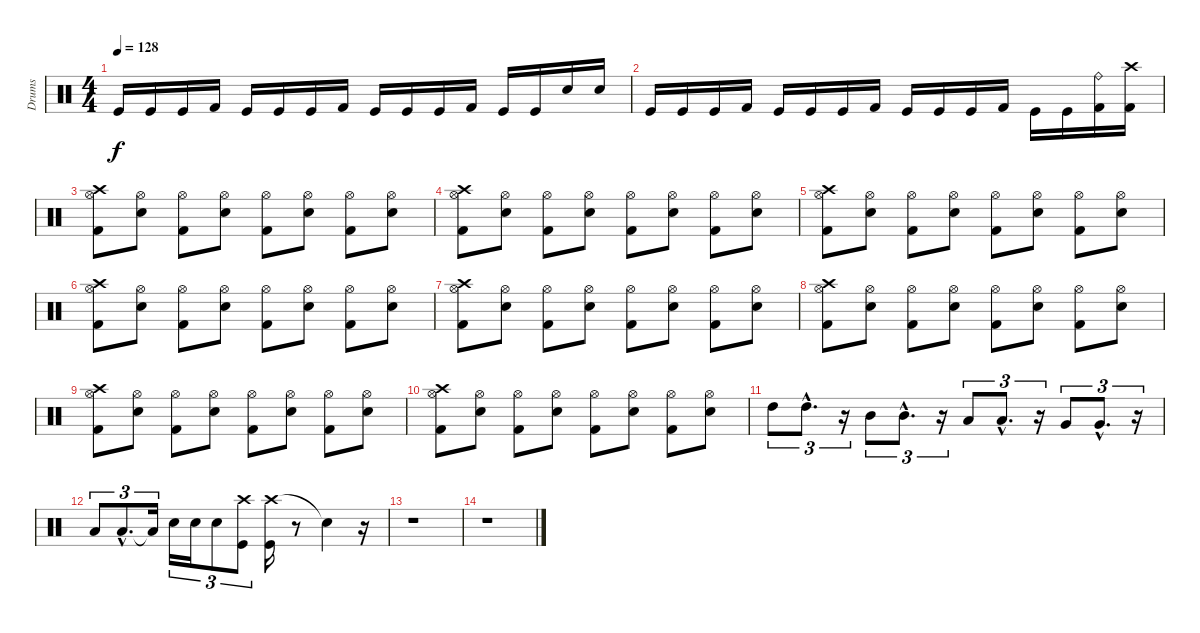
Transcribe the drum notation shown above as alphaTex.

\track ("Drums" "Drums") {instrument percussion}
\staff {score}
\articulation defaults
\ts (4 4)
\tempo 128
\clef neutral
\ks c "Kick (hit)".16{dy f} "Kick (hit)".16 "Kick (hit)".16 "Kick (hit) 2".16 "Kick (hit)".16 "Kick (hit)".16 "Kick (hit)".16 "Kick (hit) 2".16 "Kick (hit)".16 "Kick (hit)".16 "Kick (hit)".16 "Kick (hit) 2".16 "Kick (hit)".16 "Kick (hit)".16 "Snare (hit) 2".16 "Snare (hit) 2".16
|
"Kick (hit)".16 "Kick (hit)".16 "Kick (hit)".16 "Kick (hit) 2".16 "Kick (hit)".16 "Kick (hit)".16 "Kick (hit)".16 "Kick (hit) 2".16 "Kick (hit)".16 "Kick (hit)".16 "Kick (hit)".16 "Kick (hit) 2".16 "Kick (hit)".16 "Kick (hit)".16 ("Kick (hit) 2" "Ride (bell)").16 ("Kick (hit) 2" "Crash high (hit)").16 |
("Crash high (hit)" "Hi-Hat (open)" "Kick (hit) 2").8 ("Hi-Hat (open)" "Snare (hit) 2").8 ("Hi-Hat (open)" "Kick (hit) 2").8 ("Hi-Hat (open)" "Snare (hit) 2").8 ("Hi-Hat (open)" "Kick (hit) 2").8 ("Hi-Hat (open)" "Snare (hit) 2").8 ("Hi-Hat (open)" "Kick (hit) 2").8 ("Hi-Hat (open)" "Snare (hit) 2").8 |
("Crash high (hit)" "Hi-Hat (open)" "Kick (hit) 2").8 ("Hi-Hat (open)" "Snare (hit) 2").8 ("Hi-Hat (open)" "Kick (hit) 2").8 ("Hi-Hat (open)" "Snare (hit) 2").8 ("Hi-Hat (open)" "Kick (hit) 2").8 ("Hi-Hat (open)" "Snare (hit) 2").8 ("Hi-Hat (open)" "Kick (hit) 2").8 ("Hi-Hat (open)" "Snare (hit) 2").8 |
("Crash high (hit)" "Hi-Hat (open)" "Kick (hit) 2").8 ("Hi-Hat (open)" "Snare (hit) 2").8 ("Hi-Hat (open)" "Kick (hit) 2").8 ("Hi-Hat (open)" "Snare (hit) 2").8 ("Hi-Hat (open)" "Kick (hit) 2").8 ("Hi-Hat (open)" "Snare (hit) 2").8 ("Hi-Hat (open)" "Kick (hit) 2").8 ("Hi-Hat (open)" "Snare (hit) 2").8 |
("Crash high (hit)" "Hi-Hat (open)" "Kick (hit) 2").8 ("Hi-Hat (open)" "Snare (hit) 2").8 ("Hi-Hat (open)" "Kick (hit) 2").8 ("Hi-Hat (open)" "Snare (hit) 2").8 ("Hi-Hat (open)" "Kick (hit) 2").8 ("Hi-Hat (open)" "Snare (hit) 2").8 ("Hi-Hat (open)" "Kick (hit) 2").8 ("Hi-Hat (open)" "Snare (hit) 2").8 |
("Crash high (hit)" "Hi-Hat (open)" "Kick (hit) 2").8 ("Hi-Hat (open)" "Snare (hit) 2").8 ("Hi-Hat (open)" "Kick (hit) 2").8 ("Hi-Hat (open)" "Snare (hit) 2").8 ("Hi-Hat (open)" "Kick (hit) 2").8 ("Hi-Hat (open)" "Snare (hit) 2").8 ("Hi-Hat (open)" "Kick (hit) 2").8 ("Hi-Hat (open)" "Snare (hit) 2").8 |
("Crash high (hit)" "Hi-Hat (open)" "Kick (hit) 2").8 ("Hi-Hat (open)" "Snare (hit) 2").8 ("Hi-Hat (open)" "Kick (hit) 2").8 ("Hi-Hat (open)" "Snare (hit) 2").8 ("Hi-Hat (open)" "Kick (hit) 2").8 ("Hi-Hat (open)" "Snare (hit) 2").8 ("Hi-Hat (open)" "Kick (hit) 2").8 ("Hi-Hat (open)" "Snare (hit) 2").8 |
("Crash high (hit)" "Hi-Hat (open)" "Kick (hit) 2").8 ("Hi-Hat (open)" "Snare (hit) 2").8 ("Hi-Hat (open)" "Kick (hit) 2").8 ("Hi-Hat (open)" "Snare (hit) 2").8 ("Hi-Hat (open)" "Kick (hit) 2").8 ("Hi-Hat (open)" "Snare (hit) 2").8 ("Hi-Hat (open)" "Kick (hit) 2").8 ("Hi-Hat (open)" "Snare (hit) 2").8 |
("Crash high (hit)" "Hi-Hat (open)" "Kick (hit) 2").8 ("Hi-Hat (open)" "Snare (hit) 2").8 ("Hi-Hat (open)" "Kick (hit) 2").8 ("Hi-Hat (open)" "Snare (hit) 2").8 ("Hi-Hat (open)" "Kick (hit) 2").8 ("Hi-Hat (open)" "Snare (hit) 2").8 ("Hi-Hat (open)" "Kick (hit) 2").8 ("Hi-Hat (open)" "Snare (hit) 2").8 |
"High Tom (hit)".8{tu (3 2)} "High Tom (hit)"{hac}.8{d tu (3 2)} r.16{tu (3 2)} "Mid Tom (hit)".8{tu (3 2)} "Mid Tom (hit)"{hac}.8{d tu (3 2)} r.16{tu (3 2)} "Low Tom (hit)".8{tu (3 2)} "Low Tom (hit)"{hac}.8{d tu (3 2)} r.16{tu (3 2)} "Very Low Tom (hit)".8{tu (3 2)} "Very Low Tom (hit)"{hac}.8{d tu (3 2)} r.16{tu (3 2)} |
"Low Floor Tom (hit)".8{tu (3 2)} "Low Floor Tom (hit)"{hac}.8{d tu (3 2)} "Low Floor Tom (hit)"{t}.16{tu (3 2)} "Snare (hit) 2".16{tu (3 2)} "Snare (hit) 2".16{tu (3 2)} "Snare (hit) 2".8{tu (3 2)} ("Crash high (hit)" "Kick (hit)").8{tu (3 2)} ("Crash high (hit)" "Kick (hit)").16 r.8 "Snare (hit)"{t}.4 r.16 |
r.1 |
r.1
